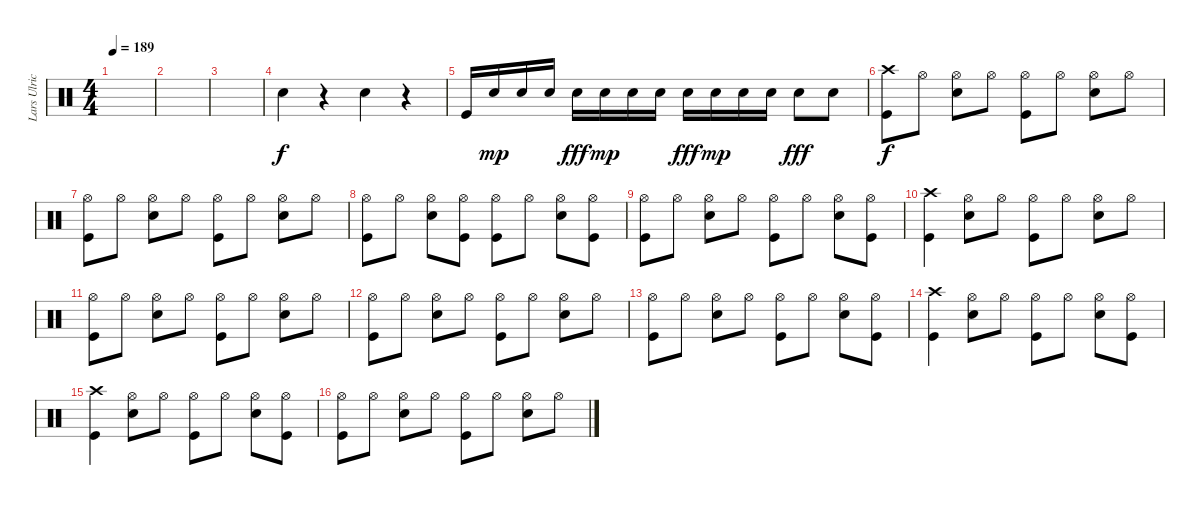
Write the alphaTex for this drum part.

\track ("Lars Ulrich" "Lars Ulric") {instrument percussion}
\staff {score}
\articulation defaults
\ts (4 4)
\tempo 189
\clef neutral
\ks c
|
|
|
"Electric Snare (hit)".4 r.4 "Electric Snare (hit)".4 r.4 |
"Kick (hit)".16 "Electric Snare (hit)".16{dy mp} "Electric Snare (hit)".16 "Electric Snare (hit)".16 "Electric Snare (hit)".16{dy fff} "Electric Snare (hit)".16{dy mp} "Electric Snare (hit)".16 "Electric Snare (hit)".16 "Electric Snare (hit)".16{dy fff} "Electric Snare (hit)".16{dy mp} "Electric Snare (hit)".16 "Electric Snare (hit)".16 "Electric Snare (hit)".8{dy fff} "Electric Snare (hit)".8 |
("Crash high (hit)" "Kick (hit)").8{dy f} "Hi-Hat (open)".8 ("Hi-Hat (open)" "Electric Snare (hit)").8 "Hi-Hat (open)".8 ("Hi-Hat (open)" "Kick (hit)").8 "Hi-Hat (open)".8 ("Hi-Hat (open)" "Electric Snare (hit)").8 "Hi-Hat (open)".8 |
("Hi-Hat (open)" "Kick (hit)").8 "Hi-Hat (open)".8 ("Hi-Hat (open)" "Electric Snare (hit)").8 "Hi-Hat (open)".8 ("Hi-Hat (open)" "Kick (hit)").8 "Hi-Hat (open)".8 ("Hi-Hat (open)" "Electric Snare (hit)").8 "Hi-Hat (open)".8 |
("Hi-Hat (open)" "Kick (hit)").8 "Hi-Hat (open)".8 ("Hi-Hat (open)" "Electric Snare (hit)").8 ("Hi-Hat (open)" "Kick (hit)").8 ("Hi-Hat (open)" "Kick (hit)").8 "Hi-Hat (open)".8 ("Hi-Hat (open)" "Electric Snare (hit)").8 ("Hi-Hat (open)" "Kick (hit)").8 |
("Hi-Hat (open)" "Kick (hit)").8 "Hi-Hat (open)".8 ("Hi-Hat (open)" "Electric Snare (hit)").8 "Hi-Hat (open)".8 ("Hi-Hat (open)" "Kick (hit)").8 "Hi-Hat (open)".8 ("Hi-Hat (open)" "Electric Snare (hit)").8 ("Hi-Hat (open)" "Kick (hit)").8 |
("Crash high (hit)" "Kick (hit)").4 ("Hi-Hat (open)" "Electric Snare (hit)").8 "Hi-Hat (open)".8 ("Hi-Hat (open)" "Kick (hit)").8 "Hi-Hat (open)".8 ("Hi-Hat (open)" "Electric Snare (hit)").8 "Hi-Hat (open)".8 |
("Hi-Hat (open)" "Kick (hit)").8 "Hi-Hat (open)".8 ("Hi-Hat (open)" "Electric Snare (hit)").8 "Hi-Hat (open)".8 ("Hi-Hat (open)" "Kick (hit)").8 "Hi-Hat (open)".8 ("Hi-Hat (open)" "Electric Snare (hit)").8 "Hi-Hat (open)".8 |
("Hi-Hat (open)" "Kick (hit)").8 "Hi-Hat (open)".8 ("Hi-Hat (open)" "Electric Snare (hit)").8 "Hi-Hat (open)".8 ("Hi-Hat (open)" "Kick (hit)").8 "Hi-Hat (open)".8 ("Hi-Hat (open)" "Electric Snare (hit)").8 "Hi-Hat (open)".8 |
("Hi-Hat (open)" "Kick (hit)").8 "Hi-Hat (open)".8 ("Hi-Hat (open)" "Electric Snare (hit)").8 "Hi-Hat (open)".8 ("Hi-Hat (open)" "Kick (hit)").8 "Hi-Hat (open)".8 ("Hi-Hat (open)" "Electric Snare (hit)").8 ("Hi-Hat (open)" "Kick (hit)").8 |
("Crash high (hit)" "Kick (hit)").4 ("Hi-Hat (open)" "Electric Snare (hit)").8 "Hi-Hat (open)".8 ("Hi-Hat (open)" "Kick (hit)").8 "Hi-Hat (open)".8 ("Hi-Hat (open)" "Electric Snare (hit)").8 ("Hi-Hat (open)" "Kick (hit)").8 |
("Crash high (hit)" "Kick (hit)").4 ("Hi-Hat (open)" "Electric Snare (hit)").8 "Hi-Hat (open)".8 ("Hi-Hat (open)" "Kick (hit)").8 "Hi-Hat (open)".8 ("Hi-Hat (open)" "Electric Snare (hit)").8 ("Hi-Hat (open)" "Kick (hit)").8 |
("Hi-Hat (open)" "Kick (hit)").8 "Hi-Hat (open)".8 ("Hi-Hat (open)" "Electric Snare (hit)").8 "Hi-Hat (open)".8 ("Hi-Hat (open)" "Kick (hit)").8 "Hi-Hat (open)".8 ("Hi-Hat (open)" "Electric Snare (hit)").8 "Hi-Hat (open)".8
